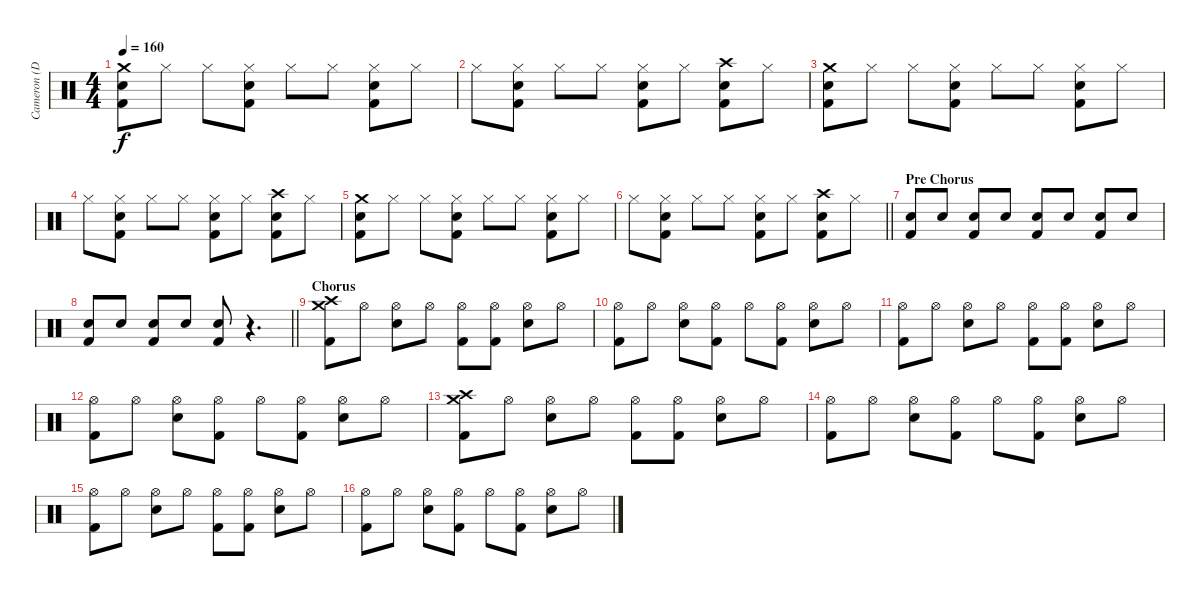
\track ("Cameron (Drums)" "Cameron (D") {instrument percussion}
\staff {score}
\articulation defaults
\ts (4 4)
\tempo 160
\clef neutral
\ks c
("Crash medium (hit)" "Snare (hit) 2" "Kick (hit) 2").8{dy f} "Hi-Hat (closed)".8 "Hi-Hat (closed)".8 ("Hi-Hat (closed)" "Snare (hit) 2" "Kick (hit) 2").8 "Hi-Hat (closed)".8 "Hi-Hat (closed)".8 ("Hi-Hat (closed)" "Snare (hit) 2" "Kick (hit) 2").8 "Hi-Hat (closed)".8 |
"Hi-Hat (closed)".8 ("Hi-Hat (closed)" "Snare (hit) 2" "Kick (hit) 2").8 "Hi-Hat (closed)".8 "Hi-Hat (closed)".8 ("Hi-Hat (closed)" "Snare (hit) 2" "Kick (hit) 2").8 "Hi-Hat (closed)".8 ("Crash high (hit)" "Snare (hit) 2" "Kick (hit) 2").8 "Hi-Hat (closed)".8 |
("Crash medium (hit)" "Snare (hit) 2" "Kick (hit) 2").8 "Hi-Hat (closed)".8 "Hi-Hat (closed)".8 ("Hi-Hat (closed)" "Snare (hit) 2" "Kick (hit) 2").8 "Hi-Hat (closed)".8 "Hi-Hat (closed)".8 ("Hi-Hat (closed)" "Snare (hit) 2" "Kick (hit) 2").8 "Hi-Hat (closed)".8 |
"Hi-Hat (closed)".8 ("Hi-Hat (closed)" "Snare (hit) 2" "Kick (hit) 2").8 "Hi-Hat (closed)".8 "Hi-Hat (closed)".8 ("Hi-Hat (closed)" "Snare (hit) 2" "Kick (hit) 2").8 "Hi-Hat (closed)".8 ("Crash high (hit)" "Snare (hit) 2" "Kick (hit) 2").8 "Hi-Hat (closed)".8 |
("Crash medium (hit)" "Snare (hit) 2" "Kick (hit) 2").8 "Hi-Hat (closed)".8 "Hi-Hat (closed)".8 ("Hi-Hat (closed)" "Snare (hit) 2" "Kick (hit) 2").8 "Hi-Hat (closed)".8 "Hi-Hat (closed)".8 ("Hi-Hat (closed)" "Snare (hit) 2" "Kick (hit) 2").8 "Hi-Hat (closed)".8 |
\barLineRight lightlight "Hi-Hat (closed)".8
("Hi-Hat (closed)" "Snare (hit) 2" "Kick (hit) 2").8 "Hi-Hat (closed)".8 "Hi-Hat (closed)".8 ("Hi-Hat (closed)" "Snare (hit) 2" "Kick (hit) 2").8 "Hi-Hat (closed)".8 ("Crash high (hit)" "Snare (hit) 2" "Kick (hit) 2").8 "Hi-Hat (closed)".8 |
\section ("" "Pre Chorus")
("Snare (hit) 2" "Kick (hit) 2").8 "Snare (hit) 2".8 ("Snare (hit) 2" "Kick (hit) 2").8 "Snare (hit) 2".8 ("Snare (hit) 2" "Kick (hit) 2").8 "Snare (hit) 2".8 ("Snare (hit) 2" "Kick (hit) 2").8 "Snare (hit) 2".8 |
\barLineRight lightlight
("Snare (hit) 2" "Kick (hit) 2").8 "Snare (hit) 2".8 ("Snare (hit) 2" "Kick (hit) 2").8 "Snare (hit) 2".8 ("Snare (hit) 2" "Kick (hit) 2").8 r.4{d} |
\section ("" "Chorus")
("Crash medium (hit)" "Crash high (hit)" "Kick (hit) 2").8 "Hi-Hat (open)".8 ("Hi-Hat (open)" "Snare (hit) 2").8 "Hi-Hat (open)".8 ("Hi-Hat (open)" "Kick (hit) 2").8 ("Hi-Hat (open)" "Kick (hit) 2").8 ("Hi-Hat (open)" "Snare (hit) 2").8 "Hi-Hat (open)".8 |
("Hi-Hat (open)" "Kick (hit) 2").8 "Hi-Hat (open)".8 ("Hi-Hat (open)" "Snare (hit) 2").8 ("Hi-Hat (open)" "Kick (hit) 2").8 "Hi-Hat (open)".8 ("Hi-Hat (open)" "Kick (hit) 2").8 ("Hi-Hat (open)" "Snare (hit) 2").8 "Hi-Hat (open)".8 |
("Hi-Hat (open)" "Kick (hit) 2").8 "Hi-Hat (open)".8 ("Hi-Hat (open)" "Snare (hit) 2").8 "Hi-Hat (open)".8 ("Hi-Hat (open)" "Kick (hit) 2").8 ("Hi-Hat (open)" "Kick (hit) 2").8 ("Hi-Hat (open)" "Snare (hit) 2").8 "Hi-Hat (open)".8 |
("Hi-Hat (open)" "Kick (hit) 2").8 "Hi-Hat (open)".8 ("Hi-Hat (open)" "Snare (hit) 2").8 ("Hi-Hat (open)" "Kick (hit) 2").8 "Hi-Hat (open)".8 ("Hi-Hat (open)" "Kick (hit) 2").8 ("Hi-Hat (open)" "Snare (hit) 2").8 "Hi-Hat (open)".8 |
("Crash medium (hit)" "Crash high (hit)" "Kick (hit) 2").8 "Hi-Hat (open)".8 ("Hi-Hat (open)" "Snare (hit) 2").8 "Hi-Hat (open)".8 ("Hi-Hat (open)" "Kick (hit) 2").8 ("Hi-Hat (open)" "Kick (hit) 2").8 ("Hi-Hat (open)" "Snare (hit) 2").8 "Hi-Hat (open)".8 |
("Hi-Hat (open)" "Kick (hit) 2").8 "Hi-Hat (open)".8 ("Hi-Hat (open)" "Snare (hit) 2").8 ("Hi-Hat (open)" "Kick (hit) 2").8 "Hi-Hat (open)".8 ("Hi-Hat (open)" "Kick (hit) 2").8 ("Hi-Hat (open)" "Snare (hit) 2").8 "Hi-Hat (open)".8 |
("Hi-Hat (open)" "Kick (hit) 2").8 "Hi-Hat (open)".8 ("Hi-Hat (open)" "Snare (hit) 2").8 "Hi-Hat (open)".8 ("Hi-Hat (open)" "Kick (hit) 2").8 ("Hi-Hat (open)" "Kick (hit) 2").8 ("Hi-Hat (open)" "Snare (hit) 2").8 "Hi-Hat (open)".8 |
("Hi-Hat (open)" "Kick (hit) 2").8 "Hi-Hat (open)".8 ("Hi-Hat (open)" "Snare (hit) 2").8 ("Hi-Hat (open)" "Kick (hit) 2").8 "Hi-Hat (open)".8 ("Hi-Hat (open)" "Kick (hit) 2").8 ("Hi-Hat (open)" "Snare (hit) 2").8 "Hi-Hat (open)".8
